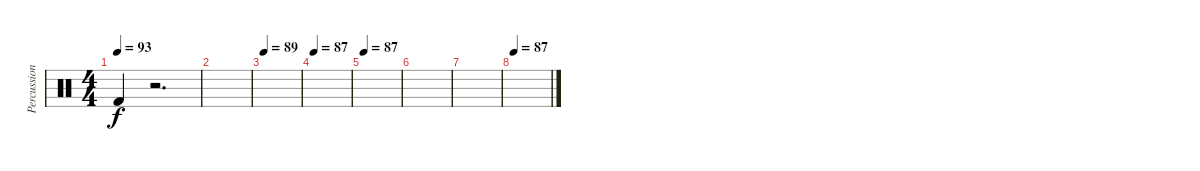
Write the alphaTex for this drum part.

\track ("Percussion" "Percussion") {instrument percussion}
\staff {score}
\articulation defaults
\ts (4 4)
\tempo 93
\clef neutral
\ks c "Kick (hit) 2".4{dy f}
r.2{d} |
|
\tempo 89
|
\tempo 87
|
\tempo 87
|
|
|
\tempo 87
